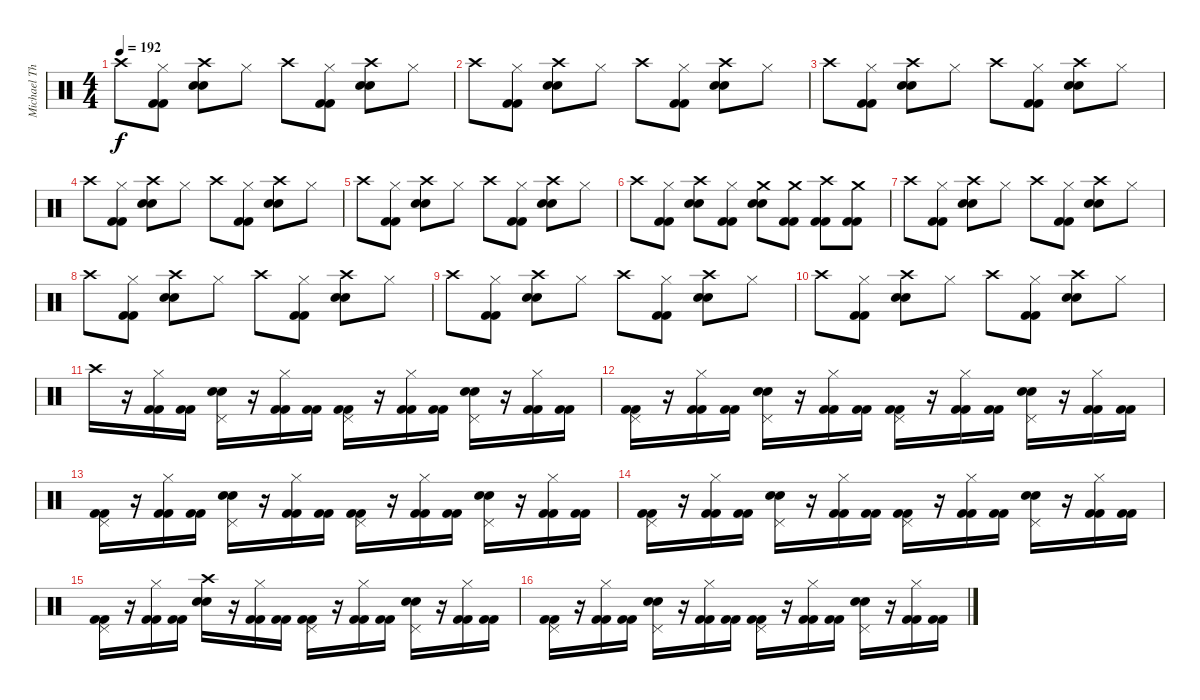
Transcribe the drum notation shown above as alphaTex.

\track ("Michael Thomas" "Michael Th") {instrument percussion}
\staff {score}
\articulation defaults
\ts (4 4)
\tempo 192
\clef neutral
\ks c "Crash high (hit)".8{dy f}
("Hi-Hat (closed)" "Kick (hit) 2" "Kick (hit) 2").8 ("Crash high (hit)" "Snare (hit) 2" "Electric Snare (hit)").8 "Hi-Hat (closed)".8 "Crash high (hit)".8 ("Hi-Hat (closed)" "Kick (hit) 2" "Kick (hit) 2").8 ("Crash high (hit)" "Snare (hit) 2" "Electric Snare (hit)").8 "Hi-Hat (closed)".8 |
"Crash high (hit)".8 ("Hi-Hat (closed)" "Kick (hit) 2" "Kick (hit) 2").8 ("Crash high (hit)" "Snare (hit) 2" "Electric Snare (hit)").8 "Hi-Hat (closed)".8 "Crash high (hit)".8 ("Hi-Hat (closed)" "Kick (hit) 2" "Kick (hit) 2").8 ("Crash high (hit)" "Snare (hit) 2" "Electric Snare (hit)").8 "Hi-Hat (closed)".8 |
"Crash high (hit)".8 ("Hi-Hat (closed)" "Kick (hit) 2" "Kick (hit) 2").8 ("Crash high (hit)" "Snare (hit) 2" "Electric Snare (hit)").8 "Hi-Hat (closed)".8 "Crash high (hit)".8 ("Hi-Hat (closed)" "Kick (hit) 2" "Kick (hit) 2").8 ("Crash high (hit)" "Snare (hit) 2" "Electric Snare (hit)").8 "Hi-Hat (closed)".8 |
"Crash high (hit)".8 ("Hi-Hat (closed)" "Kick (hit) 2" "Kick (hit) 2").8 ("Crash high (hit)" "Snare (hit) 2" "Electric Snare (hit)").8 "Hi-Hat (closed)".8 "Crash high (hit)".8 ("Hi-Hat (closed)" "Kick (hit) 2" "Kick (hit) 2").8 ("Crash high (hit)" "Snare (hit) 2" "Electric Snare (hit)").8 "Hi-Hat (closed)".8 |
"Crash high (hit)".8 ("Hi-Hat (closed)" "Kick (hit) 2" "Kick (hit) 2").8 ("Crash high (hit)" "Snare (hit) 2" "Electric Snare (hit)").8 "Hi-Hat (closed)".8 "Crash high (hit)".8 ("Hi-Hat (closed)" "Kick (hit) 2" "Kick (hit) 2").8 ("Crash high (hit)" "Snare (hit) 2" "Electric Snare (hit)").8 "Hi-Hat (closed)".8 |
"Crash high (hit)".8 ("Hi-Hat (closed)" "Kick (hit) 2" "Kick (hit) 2").8 ("Crash high (hit)" "Snare (hit) 2" "Electric Snare (hit)").8 ("Hi-Hat (closed)" "Kick (hit) 2" "Kick (hit) 2").8 ("Crash medium (hit)" "Snare (hit) 2" "Electric Snare (hit)").8 ("Crash medium (hit)" "Kick (hit) 2" "Kick (hit) 2").8 ("Crash high (hit)" "Kick (hit) 2" "Kick (hit) 2").8 ("Crash medium (hit)" "Kick (hit) 2" "Kick (hit) 2").8 |
"Crash high (hit)".8 ("Hi-Hat (closed)" "Kick (hit) 2" "Kick (hit) 2").8 ("Crash high (hit)" "Snare (hit) 2" "Electric Snare (hit)").8 "Hi-Hat (closed)".8 "Crash high (hit)".8 ("Hi-Hat (closed)" "Kick (hit) 2" "Kick (hit) 2").8 ("Crash high (hit)" "Snare (hit) 2" "Electric Snare (hit)").8 "Hi-Hat (closed)".8 |
"Crash high (hit)".8 ("Hi-Hat (closed)" "Kick (hit) 2" "Kick (hit) 2").8 ("Crash high (hit)" "Snare (hit) 2" "Electric Snare (hit)").8 "Hi-Hat (closed)".8 "Crash high (hit)".8 ("Hi-Hat (closed)" "Kick (hit) 2" "Kick (hit) 2").8 ("Crash high (hit)" "Snare (hit) 2" "Electric Snare (hit)").8 "Hi-Hat (closed)".8 |
"Crash high (hit)".8 ("Hi-Hat (closed)" "Kick (hit) 2" "Kick (hit) 2").8 ("Crash high (hit)" "Snare (hit) 2" "Electric Snare (hit)").8 "Hi-Hat (closed)".8 "Crash high (hit)".8 ("Hi-Hat (closed)" "Kick (hit) 2" "Kick (hit) 2").8 ("Crash high (hit)" "Snare (hit) 2" "Electric Snare (hit)").8 "Hi-Hat (closed)".8 |
"Crash high (hit)".8 ("Hi-Hat (closed)" "Kick (hit) 2" "Kick (hit) 2").8 ("Crash high (hit)" "Snare (hit) 2" "Electric Snare (hit)").8 "Hi-Hat (closed)".8 "Crash high (hit)".8 ("Hi-Hat (closed)" "Kick (hit) 2" "Kick (hit) 2").8 ("Crash high (hit)" "Snare (hit) 2" "Electric Snare (hit)").8 "Hi-Hat (closed)".8 |
"Crash high (hit)".16 r.16 ("Hi-Hat (closed)" "Kick (hit) 2" "Kick (hit) 2").16 ("Kick (hit) 2" "Kick (hit) 2").16 ("Pedal Hi-Hat (hit)" "Snare (hit) 2" "Electric Snare (hit)").16 r.16 ("Hi-Hat (closed)" "Kick (hit) 2" "Kick (hit) 2").16 ("Kick (hit) 2" "Kick (hit) 2").16 ("Pedal Hi-Hat (hit)" "Kick (hit) 2" "Kick (hit) 2").16 r.16 ("Hi-Hat (closed)" "Kick (hit) 2" "Kick (hit) 2").16 ("Kick (hit) 2" "Kick (hit) 2").16 ("Pedal Hi-Hat (hit)" "Snare (hit) 2" "Electric Snare (hit)").16 r.16 ("Hi-Hat (closed)" "Kick (hit) 2" "Kick (hit) 2").16 ("Kick (hit) 2" "Kick (hit) 2").16 |
("Pedal Hi-Hat (hit)" "Kick (hit) 2" "Kick (hit) 2").16 r.16 ("Hi-Hat (closed)" "Kick (hit) 2" "Kick (hit) 2").16 ("Kick (hit) 2" "Kick (hit) 2").16 ("Pedal Hi-Hat (hit)" "Snare (hit) 2" "Electric Snare (hit)").16 r.16 ("Hi-Hat (closed)" "Kick (hit) 2" "Kick (hit) 2").16 ("Kick (hit) 2" "Kick (hit) 2").16 ("Pedal Hi-Hat (hit)" "Kick (hit) 2" "Kick (hit) 2").16 r.16 ("Hi-Hat (closed)" "Kick (hit) 2" "Kick (hit) 2").16 ("Kick (hit) 2" "Kick (hit) 2").16 ("Pedal Hi-Hat (hit)" "Snare (hit) 2" "Electric Snare (hit)").16 r.16 ("Hi-Hat (closed)" "Kick (hit) 2" "Kick (hit) 2").16 ("Kick (hit) 2" "Kick (hit) 2").16 |
("Pedal Hi-Hat (hit)" "Kick (hit) 2" "Kick (hit) 2").16 r.16 ("Hi-Hat (closed)" "Kick (hit) 2" "Kick (hit) 2").16 ("Kick (hit) 2" "Kick (hit) 2").16 ("Pedal Hi-Hat (hit)" "Snare (hit) 2" "Electric Snare (hit)").16 r.16 ("Hi-Hat (closed)" "Kick (hit) 2" "Kick (hit) 2").16 ("Kick (hit) 2" "Kick (hit) 2").16 ("Pedal Hi-Hat (hit)" "Kick (hit) 2" "Kick (hit) 2").16 r.16 ("Hi-Hat (closed)" "Kick (hit) 2" "Kick (hit) 2").16 ("Kick (hit) 2" "Kick (hit) 2").16 ("Pedal Hi-Hat (hit)" "Snare (hit) 2" "Electric Snare (hit)").16 r.16 ("Hi-Hat (closed)" "Kick (hit) 2" "Kick (hit) 2").16 ("Kick (hit) 2" "Kick (hit) 2").16 |
("Pedal Hi-Hat (hit)" "Kick (hit) 2" "Kick (hit) 2").16 r.16 ("Hi-Hat (closed)" "Kick (hit) 2" "Kick (hit) 2").16 ("Kick (hit) 2" "Kick (hit) 2").16 ("Pedal Hi-Hat (hit)" "Snare (hit) 2" "Electric Snare (hit)").16 r.16 ("Hi-Hat (closed)" "Kick (hit) 2" "Kick (hit) 2").16 ("Kick (hit) 2" "Kick (hit) 2").16 ("Pedal Hi-Hat (hit)" "Kick (hit) 2" "Kick (hit) 2").16 r.16 ("Hi-Hat (closed)" "Kick (hit) 2" "Kick (hit) 2").16 ("Kick (hit) 2" "Kick (hit) 2").16 ("Pedal Hi-Hat (hit)" "Snare (hit) 2" "Electric Snare (hit)").16 r.16 ("Hi-Hat (closed)" "Kick (hit) 2" "Kick (hit) 2").16 ("Kick (hit) 2" "Kick (hit) 2").16 |
("Pedal Hi-Hat (hit)" "Kick (hit) 2" "Kick (hit) 2").16 r.16 ("Hi-Hat (closed)" "Kick (hit) 2" "Kick (hit) 2").16 ("Kick (hit) 2" "Kick (hit) 2").16 ("Crash high (hit)" "Snare (hit) 2" "Electric Snare (hit)").16 r.16 ("Hi-Hat (closed)" "Kick (hit) 2" "Kick (hit) 2").16 ("Kick (hit) 2" "Kick (hit) 2").16 ("Pedal Hi-Hat (hit)" "Kick (hit) 2" "Kick (hit) 2").16 r.16 ("Hi-Hat (closed)" "Kick (hit) 2" "Kick (hit) 2").16 ("Kick (hit) 2" "Kick (hit) 2").16 ("Pedal Hi-Hat (hit)" "Snare (hit) 2" "Electric Snare (hit)").16 r.16 ("Hi-Hat (closed)" "Kick (hit) 2" "Kick (hit) 2").16 ("Kick (hit) 2" "Kick (hit) 2").16 |
("Pedal Hi-Hat (hit)" "Kick (hit) 2" "Kick (hit) 2").16 r.16 ("Hi-Hat (closed)" "Kick (hit) 2" "Kick (hit) 2").16 ("Kick (hit) 2" "Kick (hit) 2").16 ("Pedal Hi-Hat (hit)" "Snare (hit) 2" "Electric Snare (hit)").16 r.16 ("Hi-Hat (closed)" "Kick (hit) 2" "Kick (hit) 2").16 ("Kick (hit) 2" "Kick (hit) 2").16 ("Pedal Hi-Hat (hit)" "Kick (hit) 2" "Kick (hit) 2").16 r.16 ("Hi-Hat (closed)" "Kick (hit) 2" "Kick (hit) 2").16 ("Kick (hit) 2" "Kick (hit) 2").16 ("Pedal Hi-Hat (hit)" "Snare (hit) 2" "Electric Snare (hit)").16 r.16 ("Hi-Hat (closed)" "Kick (hit) 2" "Kick (hit) 2").16 ("Kick (hit) 2" "Kick (hit) 2").16
